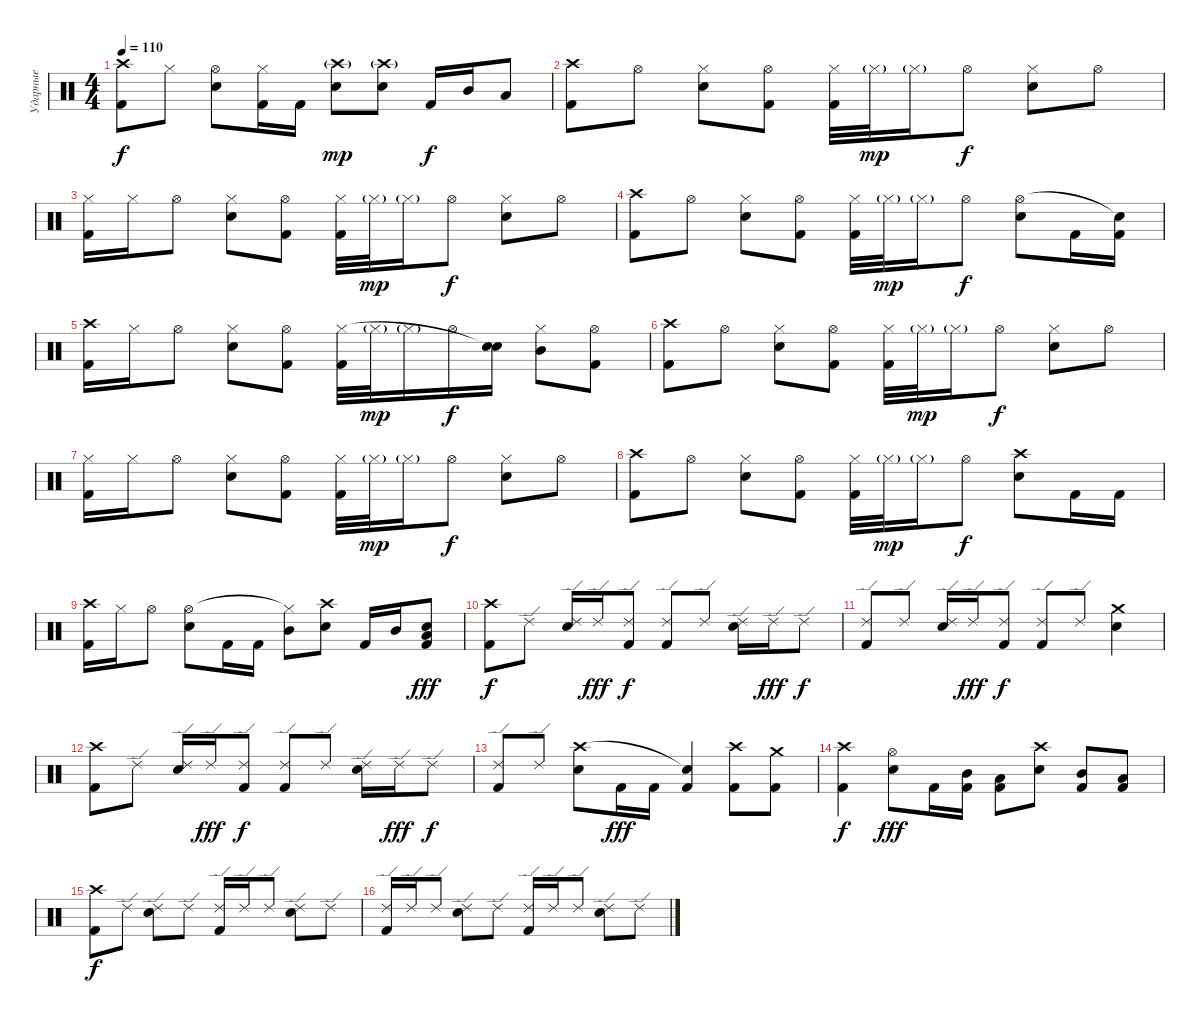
\track ("Ударные" "Ударные") {instrument percussion}
\staff {score}
\articulation defaults
\ts (4 4)
\tempo 110
\clef neutral
\ks c
("Kick (hit) 2" "Crash high (hit)").8{dy f} "Hi-Hat (closed)".8 ("Electric Snare (hit)" "Hi-Hat (open)").8 ("Kick (hit) 2" "Hi-Hat (closed)").16 "Kick (hit) 2".16 ("Electric Snare (hit)" "Crash high (hit)"{g}).8{dy mp} ("Electric Snare (hit)" "Crash high (hit)"{g}).8 "Kick (hit) 2".16{dy f} "Mid Tom (hit)".16 "Low Tom (hit)".8 |
("Kick (hit) 2" "Crash high (hit)").8 "Hi-Hat (open)".8 ("Electric Snare (hit)" "Hi-Hat (closed)").8 ("Kick (hit) 2" "Hi-Hat (open)").8 ("Kick (hit) 2" "Hi-Hat (closed)").32 "Hi-Hat (closed)"{g}.32{dy mp} "Hi-Hat (closed)"{g}.16 "Hi-Hat (open)".8{dy f} ("Electric Snare (hit)" "Hi-Hat (closed)").8 "Hi-Hat (open)".8 |
("Kick (hit) 2" "Hi-Hat (closed)").16 "Hi-Hat (closed)".16 "Hi-Hat (open)".8 ("Electric Snare (hit)" "Hi-Hat (closed)").8 ("Kick (hit) 2" "Hi-Hat (open)").8 ("Kick (hit) 2" "Hi-Hat (closed)").32 "Hi-Hat (closed)"{g}.32{dy mp} "Hi-Hat (closed)"{g}.16 "Hi-Hat (open)".8{dy f} ("Electric Snare (hit)" "Hi-Hat (closed)").8 "Hi-Hat (open)".8 |
("Kick (hit) 2" "Crash high (hit)").8 "Hi-Hat (open)".8 ("Electric Snare (hit)" "Hi-Hat (closed)").8 ("Kick (hit) 2" "Hi-Hat (open)").8 ("Kick (hit) 2" "Hi-Hat (closed)").32 "Hi-Hat (closed)"{g}.32{dy mp} "Hi-Hat (closed)"{g}.16 "Hi-Hat (open)".8{dy f} ("Electric Snare (hit)" "Hi-Hat (open)").8 "Kick (hit) 2".16 ("Kick (hit) 2" "Snare (hit)"{t}).16 |
("Kick (hit) 2" "Crash high (hit)").16 "Hi-Hat (closed)".16 "Hi-Hat (open)".8 ("Electric Snare (hit)" "Hi-Hat (closed)").8 ("Kick (hit) 2" "Hi-Hat (open)").8 ("Kick (hit) 2" "Hi-Hat (closed)").32 "Hi-Hat (closed)"{g}.32{dy mp} "Hi-Hat (closed)"{g}.16 "Hi-Hat (open)".16{dy f} ("Electric Snare (hit)" "Snare (hit)"{t}).16 ("Mid Tom (hit)" "Hi-Hat (closed)").8 ("Kick (hit) 2" "Hi-Hat (open)").8 |
("Kick (hit) 2" "Crash high (hit)").8 "Hi-Hat (open)".8 ("Electric Snare (hit)" "Hi-Hat (closed)").8 ("Kick (hit) 2" "Hi-Hat (open)").8 ("Kick (hit) 2" "Hi-Hat (closed)").32 "Hi-Hat (closed)"{g}.32{dy mp} "Hi-Hat (closed)"{g}.16 "Hi-Hat (open)".8{dy f} ("Electric Snare (hit)" "Hi-Hat (closed)").8 "Hi-Hat (open)".8 |
("Kick (hit) 2" "Hi-Hat (closed)").16 "Hi-Hat (closed)".16 "Hi-Hat (open)".8 ("Electric Snare (hit)" "Hi-Hat (closed)").8 ("Kick (hit) 2" "Hi-Hat (open)").8 ("Kick (hit) 2" "Hi-Hat (closed)").32 "Hi-Hat (closed)"{g}.32{dy mp} "Hi-Hat (closed)"{g}.16 "Hi-Hat (open)".8{dy f} ("Electric Snare (hit)" "Hi-Hat (closed)").8 "Hi-Hat (open)".8 |
("Kick (hit) 2" "Crash high (hit)").8 "Hi-Hat (open)".8 ("Electric Snare (hit)" "Hi-Hat (closed)").8 ("Kick (hit) 2" "Hi-Hat (open)").8 ("Kick (hit) 2" "Hi-Hat (closed)").32 "Hi-Hat (closed)"{g}.32{dy mp} "Hi-Hat (closed)"{g}.16 "Hi-Hat (open)".8{dy f} ("Electric Snare (hit)" "Crash high (hit)").8 "Kick (hit) 2".16 "Kick (hit) 2".16 |
("Kick (hit) 2" "Crash high (hit)").16 "Hi-Hat (closed)".16 "Hi-Hat (open)".8 ("Electric Snare (hit)" "Hi-Hat (open)").8 "Kick (hit) 2".16 "Kick (hit) 2".16 ("Mid Tom (hit)" "Hi-Hat (closed)"{t}).8 ("Electric Snare (hit)" "Crash high (hit)").8 "Kick (hit) 2".16 "Mid Tom (hit)".16 ("Kick (hit) 2" "Low Tom (hit)" "Snare (hit)").8{dy fff} |
("Kick (hit) 2" "Crash high (hit)").8{dy f} "Ride (edge) 2".8 ("Electric Snare (hit)" "Ride (edge) 2").16 "Ride (edge) 2".16{dy fff} ("Kick (hit) 2" "Ride (edge) 2").8{dy f} ("Kick (hit) 2" "Ride (edge) 2").8 "Ride (edge) 2".8 ("Electric Snare (hit)" "Ride (edge) 2").16 "Ride (edge) 2".16{dy fff} "Ride (edge) 2".8{dy f} |
("Kick (hit) 2" "Ride (edge) 2").8 "Ride (edge) 2".8 ("Electric Snare (hit)" "Ride (edge) 2").16 "Ride (edge) 2".16{dy fff} ("Kick (hit) 2" "Ride (edge) 2").8{dy f} ("Kick (hit) 2" "Ride (edge) 2").8 "Ride (edge) 2".8 ("Electric Snare (hit)" "Crash medium (hit)").4 |
("Kick (hit) 2" "Crash high (hit)").8 "Ride (edge) 2".8 ("Electric Snare (hit)" "Ride (edge) 2").16 "Ride (edge) 2".16{dy fff} ("Kick (hit) 2" "Ride (edge) 2").8{dy f} ("Kick (hit) 2" "Ride (edge) 2").8 "Ride (edge) 2".8 ("Electric Snare (hit)" "Ride (edge) 2").16 "Ride (edge) 2".16{dy fff} "Ride (edge) 2".8{dy f} |
("Kick (hit) 2" "Ride (edge) 2").8 "Ride (edge) 2".8 ("Electric Snare (hit)" "Crash high (hit)").8 "Kick (hit) 2".16{dy fff} "Kick (hit) 2".16 ("Kick (hit) 2" "Snare (hit)"{t}).4 ("Kick (hit) 2" "Crash high (hit)").8 ("Kick (hit) 2" "Crash medium (hit)").8 |
("Kick (hit) 2" "Crash high (hit)").4{dy f} ("Electric Snare (hit)" "Hi-Hat (open)").8{dy fff} "Kick (hit) 2".16 ("Kick (hit) 2" "Mid Tom (hit)").16 ("Kick (hit) 2" "Low Tom (hit)").8 ("Electric Snare (hit)" "Crash high (hit)").8 ("Kick (hit) 2" "Mid Tom (hit)").8 ("Kick (hit) 2" "Low Tom (hit)").8 |
("Kick (hit) 2" "Crash high (hit)").8{dy f} "Ride (edge) 2".8 ("Electric Snare (hit)" "Ride (edge) 2").8 "Ride (edge) 2".8 ("Kick (hit) 2" "Ride (edge) 2").16 "Ride (edge) 2".16 "Ride (edge) 2".8 ("Electric Snare (hit)" "Ride (edge) 2").8 "Ride (edge) 2".8 |
("Kick (hit) 2" "Ride (edge) 2").16 "Ride (edge) 2".16 "Ride (edge) 2".8 ("Electric Snare (hit)" "Ride (edge) 2").8 "Ride (edge) 2".8 ("Kick (hit) 2" "Ride (edge) 2").16 "Ride (edge) 2".16 "Ride (edge) 2".8 ("Electric Snare (hit)" "Ride (edge) 2").8 "Ride (edge) 2".8
